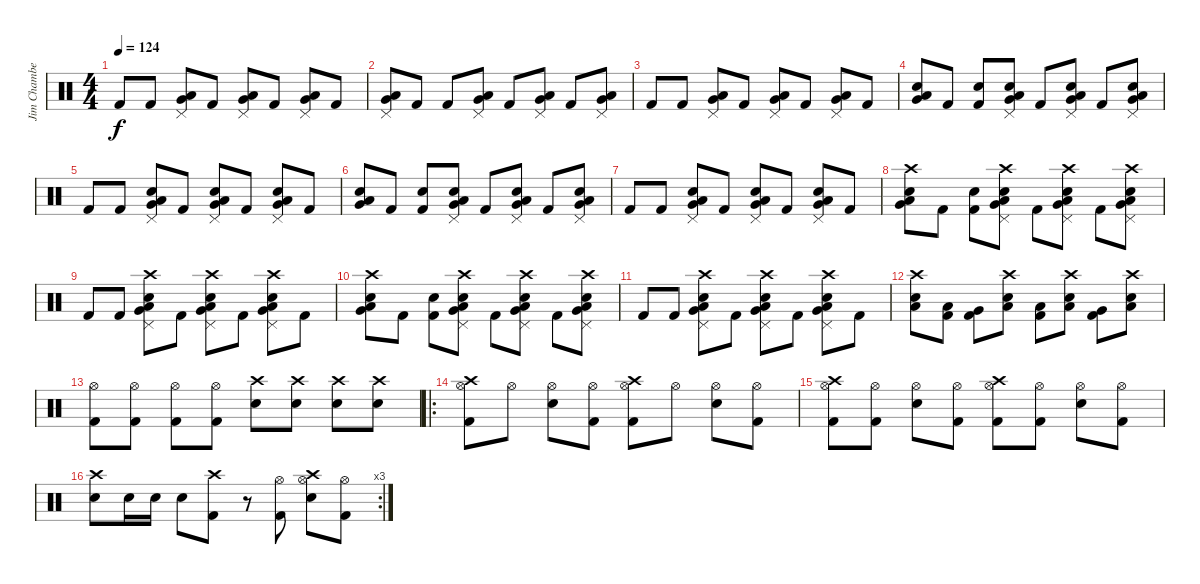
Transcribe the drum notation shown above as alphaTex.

\track ("Jim Chamberlin" "Jim Chambe") {instrument percussion}
\staff {score}
\articulation defaults
\ts (4 4)
\tempo 124
\clef neutral
\ks c "Kick (hit) 2".8{dy f} "Kick (hit) 2".8
("Pedal Hi-Hat (hit)" "Very Low Tom (hit)" "Low Floor Tom (hit)").8 "Kick (hit) 2".8 ("Pedal Hi-Hat (hit)" "Very Low Tom (hit)" "Low Floor Tom (hit)").8 "Kick (hit) 2".8 ("Pedal Hi-Hat (hit)" "Very Low Tom (hit)" "Low Floor Tom (hit)").8 "Kick (hit) 2".8 |
("Pedal Hi-Hat (hit)" "Very Low Tom (hit)" "Low Floor Tom (hit)").8 "Kick (hit) 2".8 "Kick (hit) 2".8 ("Pedal Hi-Hat (hit)" "Very Low Tom (hit)" "Low Floor Tom (hit)").8 "Kick (hit) 2".8 ("Pedal Hi-Hat (hit)" "Very Low Tom (hit)" "Low Floor Tom (hit)").8 "Kick (hit) 2".8 ("Pedal Hi-Hat (hit)" "Very Low Tom (hit)" "Low Floor Tom (hit)").8 |
"Kick (hit) 2".8 "Kick (hit) 2".8 ("Pedal Hi-Hat (hit)" "Very Low Tom (hit)" "Low Floor Tom (hit)").8 "Kick (hit) 2".8 ("Pedal Hi-Hat (hit)" "Very Low Tom (hit)" "Low Floor Tom (hit)").8 "Kick (hit) 2".8 ("Pedal Hi-Hat (hit)" "Very Low Tom (hit)" "Low Floor Tom (hit)").8 "Kick (hit) 2".8 |
("Electric Snare (hit)" "Very Low Tom (hit)" "Low Floor Tom (hit)").8 "Kick (hit) 2".8 ("Snare (hit)" "Kick (hit) 2").8 ("Electric Snare (hit)" "Pedal Hi-Hat (hit)" "Very Low Tom (hit)" "Low Floor Tom (hit)").8 "Kick (hit) 2".8 ("Electric Snare (hit)" "Pedal Hi-Hat (hit)" "Very Low Tom (hit)" "Low Floor Tom (hit)").8 "Kick (hit) 2".8 ("Electric Snare (hit)" "Pedal Hi-Hat (hit)" "Very Low Tom (hit)" "Low Floor Tom (hit)").8 |
"Kick (hit) 2".8 "Kick (hit) 2".8 ("Electric Snare (hit)" "Pedal Hi-Hat (hit)" "Very Low Tom (hit)" "Low Floor Tom (hit)").8 "Kick (hit) 2".8 ("Electric Snare (hit)" "Pedal Hi-Hat (hit)" "Very Low Tom (hit)" "Low Floor Tom (hit)").8 "Kick (hit) 2".8 ("Electric Snare (hit)" "Pedal Hi-Hat (hit)" "Very Low Tom (hit)" "Low Floor Tom (hit)").8 "Kick (hit) 2".8 |
("Electric Snare (hit)" "Very Low Tom (hit)" "Low Floor Tom (hit)").8 "Kick (hit) 2".8 ("Snare (hit)" "Kick (hit) 2").8 ("Electric Snare (hit)" "Pedal Hi-Hat (hit)" "Very Low Tom (hit)" "Low Floor Tom (hit)").8 "Kick (hit) 2".8 ("Electric Snare (hit)" "Pedal Hi-Hat (hit)" "Very Low Tom (hit)" "Low Floor Tom (hit)").8 "Kick (hit) 2".8 ("Electric Snare (hit)" "Pedal Hi-Hat (hit)" "Very Low Tom (hit)" "Low Floor Tom (hit)").8 |
"Kick (hit) 2".8 "Kick (hit) 2".8 ("Electric Snare (hit)" "Pedal Hi-Hat (hit)" "Very Low Tom (hit)" "Low Floor Tom (hit)").8 "Kick (hit) 2".8 ("Electric Snare (hit)" "Pedal Hi-Hat (hit)" "Very Low Tom (hit)" "Low Floor Tom (hit)").8 "Kick (hit) 2".8 ("Electric Snare (hit)" "Pedal Hi-Hat (hit)" "Very Low Tom (hit)" "Low Floor Tom (hit)").8 "Kick (hit) 2".8 |
("Crash high (hit)" "Electric Snare (hit)" "Very Low Tom (hit)" "Low Floor Tom (hit)").8 "Kick (hit) 2".8 ("Snare (hit)" "Kick (hit) 2").8 ("Crash high (hit)" "Electric Snare (hit)" "Pedal Hi-Hat (hit)" "Very Low Tom (hit)" "Low Floor Tom (hit)").8 "Kick (hit) 2".8 ("Crash high (hit)" "Electric Snare (hit)" "Pedal Hi-Hat (hit)" "Very Low Tom (hit)" "Low Floor Tom (hit)").8 "Kick (hit) 2".8 ("Crash high (hit)" "Electric Snare (hit)" "Pedal Hi-Hat (hit)" "Very Low Tom (hit)" "Low Floor Tom (hit)").8 |
"Kick (hit) 2".8 "Kick (hit) 2".8 ("Crash high (hit)" "Electric Snare (hit)" "Pedal Hi-Hat (hit)" "Very Low Tom (hit)" "Low Floor Tom (hit)").8 "Kick (hit) 2".8 ("Crash high (hit)" "Electric Snare (hit)" "Pedal Hi-Hat (hit)" "Very Low Tom (hit)" "Low Floor Tom (hit)").8 "Kick (hit) 2".8 ("Crash high (hit)" "Electric Snare (hit)" "Pedal Hi-Hat (hit)" "Very Low Tom (hit)" "Low Floor Tom (hit)").8 "Kick (hit) 2".8 |
("Crash high (hit)" "Electric Snare (hit)" "Very Low Tom (hit)" "Low Floor Tom (hit)").8 "Kick (hit) 2".8 ("Snare (hit)" "Kick (hit) 2").8 ("Crash high (hit)" "Electric Snare (hit)" "Pedal Hi-Hat (hit)" "Very Low Tom (hit)" "Low Floor Tom (hit)").8 "Kick (hit) 2".8 ("Crash high (hit)" "Electric Snare (hit)" "Pedal Hi-Hat (hit)" "Very Low Tom (hit)" "Low Floor Tom (hit)").8 "Kick (hit) 2".8 ("Crash high (hit)" "Electric Snare (hit)" "Pedal Hi-Hat (hit)" "Very Low Tom (hit)" "Low Floor Tom (hit)").8 |
"Kick (hit) 2".8 "Kick (hit) 2".8 ("Crash high (hit)" "Electric Snare (hit)" "Pedal Hi-Hat (hit)" "Very Low Tom (hit)" "Low Floor Tom (hit)").8 "Kick (hit) 2".8 ("Crash high (hit)" "Electric Snare (hit)" "Pedal Hi-Hat (hit)" "Very Low Tom (hit)" "Low Floor Tom (hit)").8 "Kick (hit) 2".8 ("Crash high (hit)" "Electric Snare (hit)" "Pedal Hi-Hat (hit)" "Very Low Tom (hit)" "Low Floor Tom (hit)").8 "Kick (hit) 2".8 |
("Low Floor Tom (hit)" "Crash high (hit)" "Electric Snare (hit)").8 ("Low Floor Tom (hit)" "Kick (hit) 2").8 ("Very Low Tom (hit)" "Kick (hit) 2").8 ("Low Floor Tom (hit)" "Crash high (hit)" "Electric Snare (hit)").8 ("Low Floor Tom (hit)" "Kick (hit) 2").8 ("Low Floor Tom (hit)" "Crash high (hit)" "Electric Snare (hit)").8 ("Very Low Tom (hit)" "Kick (hit) 2").8 ("Low Floor Tom (hit)" "Crash high (hit)" "Electric Snare (hit)").8 |
("Hi-Hat (open)" "Kick (hit) 2").8 ("Hi-Hat (open)" "Kick (hit) 2").8 ("Hi-Hat (open)" "Kick (hit) 2").8 ("Hi-Hat (open)" "Kick (hit) 2").8 ("Crash high (hit)" "Electric Snare (hit)").8 ("Crash high (hit)" "Electric Snare (hit)").8 ("Crash high (hit)" "Electric Snare (hit)").8 ("Crash high (hit)" "Electric Snare (hit)").8 |
\ro
("Crash high (hit)" "Hi-Hat (open)" "Kick (hit) 2").8 "Hi-Hat (open)".8 ("Hi-Hat (open)" "Electric Snare (hit)").8 ("Hi-Hat (open)" "Kick (hit) 2").8 ("Crash high (hit)" "Hi-Hat (open)" "Kick (hit) 2").8 "Hi-Hat (open)".8 ("Hi-Hat (open)" "Electric Snare (hit)").8 ("Hi-Hat (open)" "Kick (hit) 2").8 |
("Crash high (hit)" "Hi-Hat (open)" "Kick (hit) 2").8 ("Hi-Hat (open)" "Kick (hit) 2").8 ("Hi-Hat (open)" "Electric Snare (hit)").8 ("Hi-Hat (open)" "Kick (hit) 2").8 ("Crash high (hit)" "Hi-Hat (open)" "Kick (hit) 2").8 ("Hi-Hat (open)" "Kick (hit) 2").8 ("Hi-Hat (open)" "Electric Snare (hit)").8 ("Hi-Hat (open)" "Kick (hit) 2").8 |
\rc 3
("Crash high (hit)" "Electric Snare (hit)").8 "Electric Snare (hit)".16 "Electric Snare (hit)".16 "Electric Snare (hit)".8 ("Crash high (hit)" "Kick (hit) 2").8 r.8 ("Hi-Hat (open)" "Kick (hit) 2").8 ("Crash high (hit)" "Hi-Hat (open)" "Electric Snare (hit)").8 ("Hi-Hat (open)" "Kick (hit) 2").8
